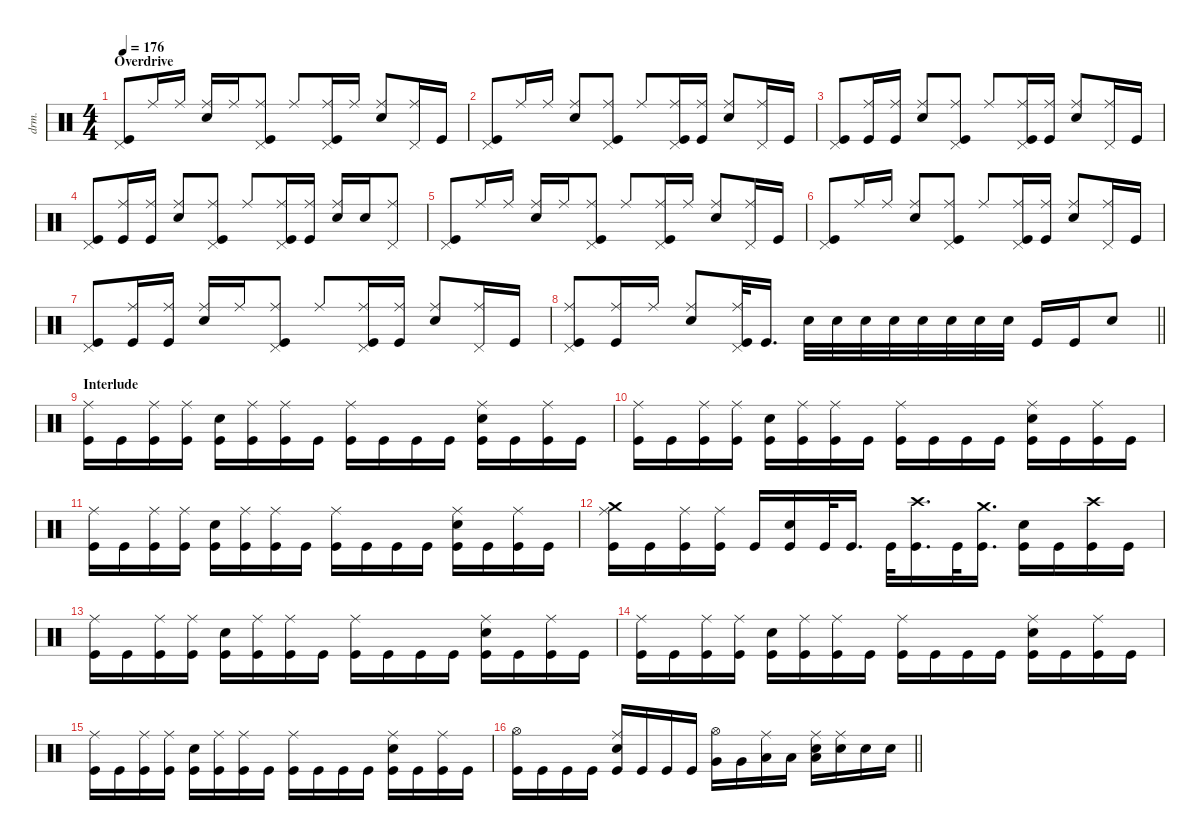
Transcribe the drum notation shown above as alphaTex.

\defaultSystemsLayout 4
\hideDynamics
\bracketExtendMode nobrackets
\track ("Gene Hoglan " "drm.") {instrument percussion}
\staff {score}
\articulation defaults
\ts (4 4)
\section ("" "Overdrive")
\tempo 176
\clef neutral
\ks c
("Pedal Hi-Hat (hit)" "Kick (hit)").8{dy f} "Ride (middle)".16 "Ride (middle)".16 ("Ride (middle)" "Snare (hit) 2").16 "Ride (middle)".16 ("Pedal Hi-Hat (hit)" "Ride (middle)" "Kick (hit)").8 "Ride (middle)".8 ("Pedal Hi-Hat (hit)" "Ride (middle)" "Kick (hit)").16 "Ride (middle)".16 ("Ride (middle)" "Snare (hit) 2").8 ("Pedal Hi-Hat (hit)" "Ride (middle)").16 "Kick (hit)".16 |
("Pedal Hi-Hat (hit)" "Kick (hit)").8 "Ride (middle)".16 "Ride (middle)".16 ("Ride (middle)" "Snare (hit) 2").8 ("Pedal Hi-Hat (hit)" "Ride (middle)" "Kick (hit)").8 "Ride (middle)".8 ("Pedal Hi-Hat (hit)" "Ride (middle)" "Kick (hit)").16 ("Ride (middle)" "Kick (hit)").16 ("Ride (middle)" "Snare (hit) 2").8 ("Pedal Hi-Hat (hit)" "Ride (middle)").16 "Kick (hit)".16 |
("Pedal Hi-Hat (hit)" "Kick (hit)").8 ("Ride (middle)" "Kick (hit)").16 ("Ride (middle)" "Kick (hit)").16 ("Ride (middle)" "Snare (hit) 2").8 ("Pedal Hi-Hat (hit)" "Ride (middle)" "Kick (hit)").8 "Ride (middle)".8 ("Pedal Hi-Hat (hit)" "Ride (middle)" "Kick (hit)").16 ("Ride (middle)" "Kick (hit)").16 ("Ride (middle)" "Snare (hit) 2").8 ("Pedal Hi-Hat (hit)" "Ride (middle)").16 "Kick (hit)".16 |
("Pedal Hi-Hat (hit)" "Kick (hit)").8 ("Ride (middle)" "Kick (hit)").16 ("Ride (middle)" "Kick (hit)").16 ("Ride (middle)" "Snare (hit) 2").8 ("Pedal Hi-Hat (hit)" "Ride (middle)" "Kick (hit)").8 "Ride (middle)".8 ("Pedal Hi-Hat (hit)" "Ride (middle)" "Kick (hit)").16 ("Ride (middle)" "Kick (hit)").16 ("Ride (middle)" "Snare (hit) 2").16 "Snare (hit) 2".16 ("Pedal Hi-Hat (hit)" "Ride (middle)").8 |
("Pedal Hi-Hat (hit)" "Kick (hit)").8 "Ride (middle)".16 "Ride (middle)".16 ("Ride (middle)" "Snare (hit) 2").16 "Ride (middle)".16 ("Pedal Hi-Hat (hit)" "Ride (middle)" "Kick (hit)").8 "Ride (middle)".8 ("Pedal Hi-Hat (hit)" "Ride (middle)" "Kick (hit)").16 "Ride (middle)".16 ("Ride (middle)" "Snare (hit) 2").8 ("Pedal Hi-Hat (hit)" "Ride (middle)").16 "Kick (hit)".16 |
("Pedal Hi-Hat (hit)" "Kick (hit)").8 "Ride (middle)".16 "Ride (middle)".16 ("Ride (middle)" "Snare (hit) 2").8 ("Pedal Hi-Hat (hit)" "Ride (middle)" "Kick (hit)").8 "Ride (middle)".8 ("Pedal Hi-Hat (hit)" "Ride (middle)" "Kick (hit)").16 ("Ride (middle)" "Kick (hit)").16 ("Ride (middle)" "Snare (hit) 2").8 ("Pedal Hi-Hat (hit)" "Ride (middle)").16 "Kick (hit)".16 |
("Pedal Hi-Hat (hit)" "Kick (hit)").8 ("Ride (middle)" "Kick (hit)").16 ("Ride (middle)" "Kick (hit)").16 ("Ride (middle)" "Snare (hit) 2").16 "Ride (middle)".16 ("Pedal Hi-Hat (hit)" "Ride (middle)" "Kick (hit)").8 "Ride (middle)".8 ("Pedal Hi-Hat (hit)" "Ride (middle)" "Kick (hit)").16 ("Ride (middle)" "Kick (hit)").16 ("Ride (middle)" "Snare (hit) 2").8 ("Pedal Hi-Hat (hit)" "Ride (middle)").16 "Kick (hit)".16 |
\barLineRight lightlight
("Pedal Hi-Hat (hit)" "Ride (middle)" "Kick (hit)").8 ("Ride (middle)" "Kick (hit)").16 "Ride (middle)".16 ("Ride (middle)" "Snare (hit) 2").8 ("Pedal Hi-Hat (hit)" "Ride (middle)" "Kick (hit)").32 "Kick (hit)".16{d} "Snare (hit) 2".32 "Snare (hit) 2".32 "Snare (hit) 2".32 "Snare (hit) 2".32 "Snare (hit) 2".32 "Snare (hit) 2".32 "Snare (hit) 2".32 "Snare (hit) 2".32 "Kick (hit)".16 "Kick (hit)".16 "Snare (hit) 2".8 |
\section ("" "Interlude")
("Ride (middle)" "Kick (hit)").16 "Kick (hit)".16 ("Ride (middle)" "Kick (hit)").16 ("Ride (middle)" "Kick (hit)").16 ("Snare (hit) 2" "Kick (hit)").16 ("Ride (middle)" "Kick (hit)").16 ("Ride (middle)" "Kick (hit)").16 "Kick (hit)".16 ("Ride (middle)" "Kick (hit)").16 "Kick (hit)".16 "Kick (hit)".16 "Kick (hit)".16 ("Ride (middle)" "Snare (hit) 2" "Kick (hit)").16 "Kick (hit)".16 ("Ride (middle)" "Kick (hit)").16 "Kick (hit)".16 |
("Ride (middle)" "Kick (hit)").16 "Kick (hit)".16 ("Ride (middle)" "Kick (hit)").16 ("Ride (middle)" "Kick (hit)").16 ("Snare (hit) 2" "Kick (hit)").16 ("Ride (middle)" "Kick (hit)").16 ("Ride (middle)" "Kick (hit)").16 "Kick (hit)".16 ("Ride (middle)" "Kick (hit)").16 "Kick (hit)".16 "Kick (hit)".16 "Kick (hit)".16 ("Ride (middle)" "Snare (hit) 2" "Kick (hit)").16 "Kick (hit)".16 ("Ride (middle)" "Kick (hit)").16 "Kick (hit)".16 |
("Ride (middle)" "Kick (hit)").16 "Kick (hit)".16 ("Ride (middle)" "Kick (hit)").16 ("Ride (middle)" "Kick (hit)").16 ("Snare (hit) 2" "Kick (hit)").16 ("Ride (middle)" "Kick (hit)").16 ("Ride (middle)" "Kick (hit)").16 "Kick (hit)".16 ("Ride (middle)" "Kick (hit)").16 "Kick (hit)".16 "Kick (hit)".16 "Kick (hit)".16 ("Ride (middle)" "Snare (hit) 2" "Kick (hit)").16 "Kick (hit)".16 ("Ride (middle)" "Kick (hit)").16 "Kick (hit)".16 |
("Crash medium (hit)" "Ride (middle)" "Kick (hit)").16 "Kick (hit)".16 ("Ride (middle)" "Kick (hit)").16 ("Ride (middle)" "Kick (hit)").16 "Kick (hit)".16 ("Snare (hit) 2" "Kick (hit)").16 "Kick (hit)".32 "Kick (hit)".16{d} "Kick (hit)".32 ("Crash high (hit)" "Kick (hit)").16{d} "Kick (hit)".32 ("Crash medium (hit)" "Kick (hit)").16{d} ("Snare (hit) 2" "Kick (hit)").16 "Kick (hit)".16 ("Crash high (hit)" "Kick (hit)").16 "Kick (hit)".16 |
("Ride (middle)" "Kick (hit)").16 "Kick (hit)".16 ("Ride (middle)" "Kick (hit)").16 ("Ride (middle)" "Kick (hit)").16 ("Snare (hit) 2" "Kick (hit)").16 ("Ride (middle)" "Kick (hit)").16 ("Ride (middle)" "Kick (hit)").16 "Kick (hit)".16 ("Ride (middle)" "Kick (hit)").16 "Kick (hit)".16 "Kick (hit)".16 "Kick (hit)".16 ("Ride (middle)" "Snare (hit) 2" "Kick (hit)").16 "Kick (hit)".16 ("Ride (middle)" "Kick (hit)").16 "Kick (hit)".16 |
("Ride (middle)" "Kick (hit)").16 "Kick (hit)".16 ("Ride (middle)" "Kick (hit)").16 ("Ride (middle)" "Kick (hit)").16 ("Snare (hit) 2" "Kick (hit)").16 ("Ride (middle)" "Kick (hit)").16 ("Ride (middle)" "Kick (hit)").16 "Kick (hit)".16 ("Ride (middle)" "Kick (hit)").16 "Kick (hit)".16 "Kick (hit)".16 "Kick (hit)".16 ("Ride (middle)" "Snare (hit) 2" "Kick (hit)").16 "Kick (hit)".16 ("Ride (middle)" "Kick (hit)").16 "Kick (hit)".16 |
("Ride (middle)" "Kick (hit)").16 "Kick (hit)".16 ("Ride (middle)" "Kick (hit)").16 ("Ride (middle)" "Kick (hit)").16 ("Snare (hit) 2" "Kick (hit)").16 ("Ride (middle)" "Kick (hit)").16 ("Ride (middle)" "Kick (hit)").16 "Kick (hit)".16 ("Ride (middle)" "Kick (hit)").16 "Kick (hit)".16 "Kick (hit)".16 "Kick (hit)".16 ("Ride (middle)" "Snare (hit) 2" "Kick (hit)").16 "Kick (hit)".16 ("Ride (middle)" "Kick (hit)").16 "Kick (hit)".16 |
\barLineRight lightlight
("Hi-Hat (open)" "Kick (hit)").16 "Kick (hit)".16 "Kick (hit)".16 "Kick (hit)".16 ("Ride (middle)" "Snare (hit) 2" "Kick (hit)").16 "Kick (hit)".16 "Kick (hit)".16 "Kick (hit)".16 ("Hi-Hat (open)" "Very Low Tom (hit)").16 "Very Low Tom (hit)".16 ("Ride (middle)" "Low Floor Tom (hit)").16 "Low Floor Tom (hit)".16 ("Ride (middle)" "Snare (hit) 2" "Low Floor Tom (hit)").16 ("Ride (middle)" "Snare (hit) 2").16 "Snare (hit) 2".16 "Snare (hit) 2".16
